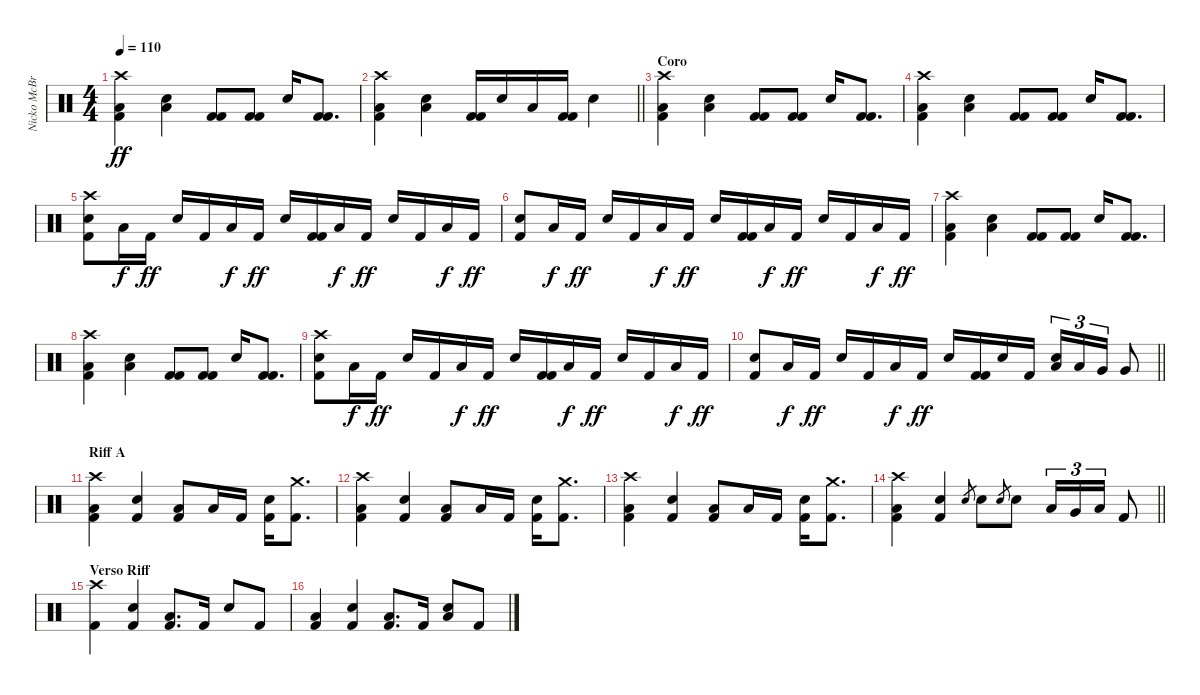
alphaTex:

\track ("Nicko McBrain" "Nicko McBr") {instrument percussion}
\staff {score}
\articulation defaults
\ts (4 4)
\tempo 110
\clef neutral
\ks c
("Crash high (hit)" "Low Floor Tom (hit)" "Kick (hit) 2").4{dy ff} ("Snare (hit) 2" "Low Floor Tom (hit)").4 ("Kick (hit) 2" "Kick (hit) 2").8 ("Kick (hit) 2" "Kick (hit) 2").8 "Snare (hit) 2".16 ("Kick (hit) 2" "Kick (hit) 2").8{d} |
\barLineRight lightlight
("Crash high (hit)" "Low Floor Tom (hit)" "Kick (hit) 2").4 ("Snare (hit) 2" "Low Floor Tom (hit)").4 ("Kick (hit) 2" "Kick (hit) 2").16 "Snare (hit) 2".16 "Low Floor Tom (hit)".16 ("Kick (hit) 2" "Kick (hit) 2").16 "Snare (hit) 2".4 |
\section ("" "Coro")
("Crash high (hit)" "Low Floor Tom (hit)" "Kick (hit) 2").4 ("Snare (hit) 2" "Low Floor Tom (hit)").4 ("Kick (hit) 2" "Kick (hit) 2").8 ("Kick (hit) 2" "Kick (hit) 2").8 "Snare (hit) 2".16 ("Kick (hit) 2" "Kick (hit) 2").8{d} |
("Crash high (hit)" "Low Floor Tom (hit)" "Kick (hit) 2").4 ("Snare (hit) 2" "Low Floor Tom (hit)").4 ("Kick (hit) 2" "Kick (hit) 2").8 ("Kick (hit) 2" "Kick (hit) 2").8 "Snare (hit) 2".16 ("Kick (hit) 2" "Kick (hit) 2").8{d} |
("Snare (hit) 2" "Kick (hit) 2" "Crash high (hit)").8 "Low Floor Tom (hit)".16{dy f} "Kick (hit) 2".16{dy ff} "Snare (hit) 2".16 "Kick (hit) 2".16 "Low Floor Tom (hit)".16{dy f} "Kick (hit) 2".16{dy ff} "Snare (hit) 2".16 ("Kick (hit) 2" "Kick (hit) 2").16 "Low Floor Tom (hit)".16{dy f} "Kick (hit) 2".16{dy ff} "Snare (hit) 2".16 "Kick (hit) 2".16 "Low Floor Tom (hit)".16{dy f} "Kick (hit) 2".16{dy ff} |
("Snare (hit) 2" "Kick (hit) 2").8 "Low Floor Tom (hit)".16{dy f} "Kick (hit) 2".16{dy ff} "Snare (hit) 2".16 "Kick (hit) 2".16 "Low Floor Tom (hit)".16{dy f} "Kick (hit) 2".16{dy ff} "Snare (hit) 2".16 ("Kick (hit) 2" "Kick (hit) 2").16 "Low Floor Tom (hit)".16{dy f} "Kick (hit) 2".16{dy ff} "Snare (hit) 2".16 "Kick (hit) 2".16 "Low Floor Tom (hit)".16{dy f} "Kick (hit) 2".16{dy ff} |
("Crash high (hit)" "Low Floor Tom (hit)" "Kick (hit) 2").4 ("Snare (hit) 2" "Low Floor Tom (hit)").4 ("Kick (hit) 2" "Kick (hit) 2").8 ("Kick (hit) 2" "Kick (hit) 2").8 "Snare (hit) 2".16 ("Kick (hit) 2" "Kick (hit) 2").8{d} |
("Crash high (hit)" "Low Floor Tom (hit)" "Kick (hit) 2").4 ("Snare (hit) 2" "Low Floor Tom (hit)").4 ("Kick (hit) 2" "Kick (hit) 2").8 ("Kick (hit) 2" "Kick (hit) 2").8 "Snare (hit) 2".16 ("Kick (hit) 2" "Kick (hit) 2").8{d} |
("Snare (hit) 2" "Kick (hit) 2" "Crash high (hit)").8 "Low Floor Tom (hit)".16{dy f} "Kick (hit) 2".16{dy ff} "Snare (hit) 2".16 "Kick (hit) 2".16 "Low Floor Tom (hit)".16{dy f} "Kick (hit) 2".16{dy ff} "Snare (hit) 2".16 ("Kick (hit) 2" "Kick (hit) 2").16 "Low Floor Tom (hit)".16{dy f} "Kick (hit) 2".16{dy ff} "Snare (hit) 2".16 "Kick (hit) 2".16 "Low Floor Tom (hit)".16{dy f} "Kick (hit) 2".16{dy ff} |
\barLineRight lightlight
("Snare (hit) 2" "Kick (hit) 2").8 "Low Floor Tom (hit)".16{dy f} "Kick (hit) 2".16{dy ff} "Snare (hit) 2".16 "Kick (hit) 2".16 "Low Floor Tom (hit)".16{dy f} "Kick (hit) 2".16{dy ff} "Snare (hit) 2".16 ("Kick (hit) 2" "Kick (hit) 2").16 "Snare (hit) 2".16 "Kick (hit) 2".16 ("Low Tom (hit)" "Snare (hit) 2").16{tu (3 2)} "Low Tom (hit)".16{tu (3 2)} "Very Low Tom (hit)".16{tu (3 2)} "Very Low Tom (hit)".8 |
\section ("" "Riff A")
("Crash high (hit)" "Low Floor Tom (hit)" "Kick (hit) 2").4 ("Snare (hit) 2" "Kick (hit) 2").4 ("Low Floor Tom (hit)" "Kick (hit) 2").8 "Low Floor Tom (hit)".16 "Kick (hit) 2".16 ("Snare (hit) 2" "Kick (hit) 2").16 ("Crash medium (hit)" "Kick (hit) 2").8{d} |
("Crash high (hit)" "Low Floor Tom (hit)" "Kick (hit) 2").4 ("Snare (hit) 2" "Kick (hit) 2").4 ("Low Floor Tom (hit)" "Kick (hit) 2").8 "Low Floor Tom (hit)".16 "Kick (hit) 2".16 ("Snare (hit) 2" "Kick (hit) 2").16 ("Crash medium (hit)" "Kick (hit) 2").8{d} |
("Crash high (hit)" "Low Floor Tom (hit)" "Kick (hit) 2").4 ("Snare (hit) 2" "Kick (hit) 2").4 ("Low Floor Tom (hit)" "Kick (hit) 2").8 "Low Floor Tom (hit)".16 "Kick (hit) 2".16 ("Snare (hit) 2" "Kick (hit) 2").16 ("Crash medium (hit)" "Kick (hit) 2").8{d} |
\barLineRight lightlight
("Crash high (hit)" "Low Floor Tom (hit)" "Kick (hit) 2").4 ("Snare (hit) 2" "Kick (hit) 2").4 "Snare (hit) 2".8{gr} "Snare (hit) 2".8 "Snare (hit) 2".8{gr} "Snare (hit) 2".8 "Low Tom (hit)".16{tu (3 2)} "Very Low Tom (hit)".16{tu (3 2)} "Low Floor Tom (hit)".16{tu (3 2)} "Kick (hit) 2".8 |
\section ("" "Verso Riff")
("Crash high (hit)" "Kick (hit) 2").4 ("Snare (hit) 2" "Kick (hit) 2").4 ("Low Floor Tom (hit)" "Kick (hit) 2").8{d} "Kick (hit) 2".16 "Snare (hit) 2".8 "Kick (hit) 2".8 |
("Low Floor Tom (hit)" "Kick (hit) 2").4 ("Snare (hit) 2" "Kick (hit) 2").4 ("Low Floor Tom (hit)" "Kick (hit) 2").8{d} "Kick (hit) 2".16 ("Snare (hit) 2" "Low Floor Tom (hit)").8 "Kick (hit) 2".8
